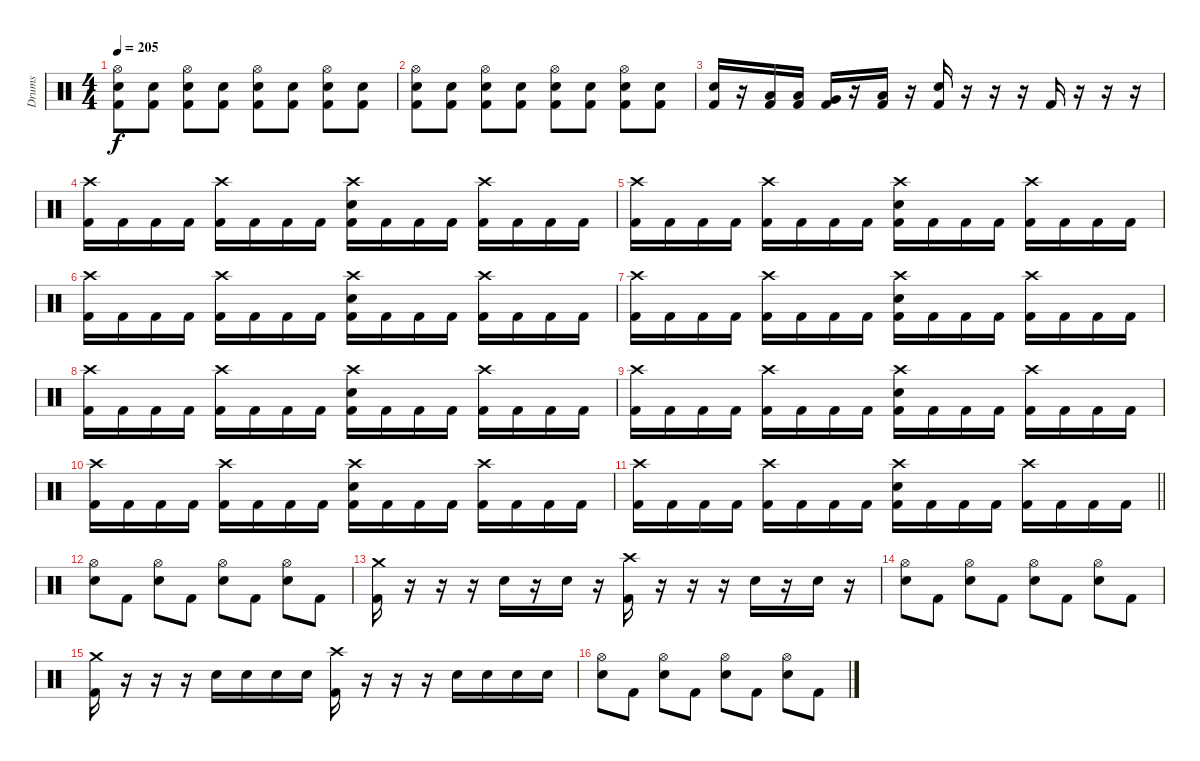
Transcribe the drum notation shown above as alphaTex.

\track ("Drums" "Drums") {instrument percussion}
\staff {score}
\articulation defaults
\ts (4 4)
\tempo 205
\clef neutral
\ks c
("Hi-Hat (open)" "Electric Snare (hit)" "Kick (hit) 2").8{dy f} ("Electric Snare (hit)" "Kick (hit) 2").8 ("Hi-Hat (open)" "Electric Snare (hit)" "Kick (hit) 2").8 ("Electric Snare (hit)" "Kick (hit) 2").8 ("Hi-Hat (open)" "Electric Snare (hit)" "Kick (hit) 2").8 ("Electric Snare (hit)" "Kick (hit) 2").8 ("Hi-Hat (open)" "Electric Snare (hit)" "Kick (hit) 2").8 ("Electric Snare (hit)" "Kick (hit) 2").8 |
("Hi-Hat (open)" "Electric Snare (hit)" "Kick (hit) 2").8 ("Electric Snare (hit)" "Kick (hit) 2").8 ("Hi-Hat (open)" "Electric Snare (hit)" "Kick (hit) 2").8 ("Electric Snare (hit)" "Kick (hit) 2").8 ("Hi-Hat (open)" "Electric Snare (hit)" "Kick (hit) 2").8 ("Electric Snare (hit)" "Kick (hit) 2").8 ("Hi-Hat (open)" "Electric Snare (hit)" "Kick (hit) 2").8 ("Electric Snare (hit)" "Kick (hit) 2").8 |
("Electric Snare (hit)" "Kick (hit) 2").16 r.16 ("Low Tom (hit)" "Kick (hit) 2").16 ("Low Tom (hit)" "Kick (hit) 2").16 ("Very Low Tom (hit)" "Kick (hit) 2").16 r.16 ("Low Floor Tom (hit)" "Kick (hit) 2").16 r.16 ("Electric Snare (hit)" "Kick (hit) 2").16 r.16 r.16 r.16 "Kick (hit) 2".16 r.16 r.16 r.16 |
("Crash high (hit)" "Kick (hit) 2").16 "Kick (hit) 2".16 "Kick (hit) 2".16 "Kick (hit) 2".16 ("Crash high (hit)" "Kick (hit) 2").16 "Kick (hit) 2".16 "Kick (hit) 2".16 "Kick (hit) 2".16 ("Crash high (hit)" "Electric Snare (hit)" "Kick (hit) 2").16 "Kick (hit) 2".16 "Kick (hit) 2".16 "Kick (hit) 2".16 ("Crash high (hit)" "Kick (hit) 2").16 "Kick (hit) 2".16 "Kick (hit) 2".16 "Kick (hit) 2".16 |
("Crash high (hit)" "Kick (hit) 2").16 "Kick (hit) 2".16 "Kick (hit) 2".16 "Kick (hit) 2".16 ("Crash high (hit)" "Kick (hit) 2").16 "Kick (hit) 2".16 "Kick (hit) 2".16 "Kick (hit) 2".16 ("Crash high (hit)" "Electric Snare (hit)" "Kick (hit) 2").16 "Kick (hit) 2".16 "Kick (hit) 2".16 "Kick (hit) 2".16 ("Crash high (hit)" "Kick (hit) 2").16 "Kick (hit) 2".16 "Kick (hit) 2".16 "Kick (hit) 2".16 |
("Crash high (hit)" "Kick (hit) 2").16 "Kick (hit) 2".16 "Kick (hit) 2".16 "Kick (hit) 2".16 ("Crash high (hit)" "Kick (hit) 2").16 "Kick (hit) 2".16 "Kick (hit) 2".16 "Kick (hit) 2".16 ("Crash high (hit)" "Electric Snare (hit)" "Kick (hit) 2").16 "Kick (hit) 2".16 "Kick (hit) 2".16 "Kick (hit) 2".16 ("Crash high (hit)" "Kick (hit) 2").16 "Kick (hit) 2".16 "Kick (hit) 2".16 "Kick (hit) 2".16 |
("Crash high (hit)" "Kick (hit) 2").16 "Kick (hit) 2".16 "Kick (hit) 2".16 "Kick (hit) 2".16 ("Crash high (hit)" "Kick (hit) 2").16 "Kick (hit) 2".16 "Kick (hit) 2".16 "Kick (hit) 2".16 ("Crash high (hit)" "Electric Snare (hit)" "Kick (hit) 2").16 "Kick (hit) 2".16 "Kick (hit) 2".16 "Kick (hit) 2".16 ("Crash high (hit)" "Kick (hit) 2").16 "Kick (hit) 2".16 "Kick (hit) 2".16 "Kick (hit) 2".16 |
("Crash high (hit)" "Kick (hit) 2").16 "Kick (hit) 2".16 "Kick (hit) 2".16 "Kick (hit) 2".16 ("Crash high (hit)" "Kick (hit) 2").16 "Kick (hit) 2".16 "Kick (hit) 2".16 "Kick (hit) 2".16 ("Crash high (hit)" "Electric Snare (hit)" "Kick (hit) 2").16 "Kick (hit) 2".16 "Kick (hit) 2".16 "Kick (hit) 2".16 ("Crash high (hit)" "Kick (hit) 2").16 "Kick (hit) 2".16 "Kick (hit) 2".16 "Kick (hit) 2".16 |
("Crash high (hit)" "Kick (hit) 2").16 "Kick (hit) 2".16 "Kick (hit) 2".16 "Kick (hit) 2".16 ("Crash high (hit)" "Kick (hit) 2").16 "Kick (hit) 2".16 "Kick (hit) 2".16 "Kick (hit) 2".16 ("Crash high (hit)" "Electric Snare (hit)" "Kick (hit) 2").16 "Kick (hit) 2".16 "Kick (hit) 2".16 "Kick (hit) 2".16 ("Crash high (hit)" "Kick (hit) 2").16 "Kick (hit) 2".16 "Kick (hit) 2".16 "Kick (hit) 2".16 |
("Crash high (hit)" "Kick (hit) 2").16 "Kick (hit) 2".16 "Kick (hit) 2".16 "Kick (hit) 2".16 ("Crash high (hit)" "Kick (hit) 2").16 "Kick (hit) 2".16 "Kick (hit) 2".16 "Kick (hit) 2".16 ("Crash high (hit)" "Electric Snare (hit)" "Kick (hit) 2").16 "Kick (hit) 2".16 "Kick (hit) 2".16 "Kick (hit) 2".16 ("Crash high (hit)" "Kick (hit) 2").16 "Kick (hit) 2".16 "Kick (hit) 2".16 "Kick (hit) 2".16 |
\barLineRight lightlight
("Crash high (hit)" "Kick (hit) 2").16 "Kick (hit) 2".16 "Kick (hit) 2".16 "Kick (hit) 2".16 ("Crash high (hit)" "Kick (hit) 2").16 "Kick (hit) 2".16 "Kick (hit) 2".16 "Kick (hit) 2".16 ("Crash high (hit)" "Electric Snare (hit)" "Kick (hit) 2").16 "Kick (hit) 2".16 "Kick (hit) 2".16 "Kick (hit) 2".16 ("Crash high (hit)" "Kick (hit) 2").16 "Kick (hit) 2".16 "Kick (hit) 2".16 "Kick (hit) 2".16 |
("Hi-Hat (open)" "Electric Snare (hit)").8 "Kick (hit) 2".8 ("Hi-Hat (open)" "Electric Snare (hit)").8 "Kick (hit) 2".8 ("Hi-Hat (open)" "Electric Snare (hit)").8 "Kick (hit) 2".8 ("Hi-Hat (open)" "Electric Snare (hit)").8 "Kick (hit) 2".8 |
("Crash medium (hit)" "Kick (hit) 2").16 r.16 r.16 r.16 "Electric Snare (hit)".16 r.16 "Electric Snare (hit)".16 r.16 ("Crash high (hit)" "Kick (hit) 2").16 r.16 r.16 r.16 "Electric Snare (hit)".16 r.16 "Electric Snare (hit)".16 r.16 |
("Hi-Hat (open)" "Electric Snare (hit)").8 "Kick (hit) 2".8 ("Hi-Hat (open)" "Electric Snare (hit)").8 "Kick (hit) 2".8 ("Hi-Hat (open)" "Electric Snare (hit)").8 "Kick (hit) 2".8 ("Hi-Hat (open)" "Electric Snare (hit)").8 "Kick (hit) 2".8 |
("Crash medium (hit)" "Kick (hit) 2").16 r.16 r.16 r.16 "Electric Snare (hit)".16 "Electric Snare (hit)".16 "Electric Snare (hit)".16 "Electric Snare (hit)".16 ("Crash high (hit)" "Kick (hit) 2").16 r.16 r.16 r.16 "Electric Snare (hit)".16 "Electric Snare (hit)".16 "Electric Snare (hit)".16 "Electric Snare (hit)".16 |
("Hi-Hat (open)" "Electric Snare (hit)").8 "Kick (hit) 2".8 ("Hi-Hat (open)" "Electric Snare (hit)").8 "Kick (hit) 2".8 ("Hi-Hat (open)" "Electric Snare (hit)").8 "Kick (hit) 2".8 ("Hi-Hat (open)" "Electric Snare (hit)").8 "Kick (hit) 2".8
